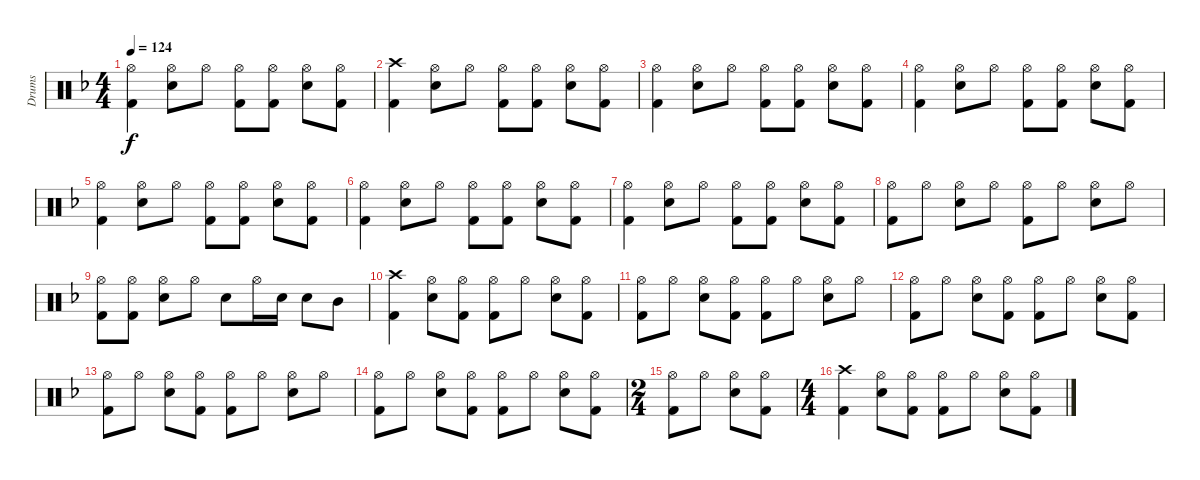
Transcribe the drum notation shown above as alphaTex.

\track ("Drums" "Drums") {instrument percussion}
\staff {score}
\articulation defaults
\ts (4 4)
\tempo 124
\clef neutral
\ks dminor
("Kick (hit) 2" "Hi-Hat (open)").4{dy f} ("Snare (hit) 2" "Hi-Hat (open)").8 "Hi-Hat (open)".8 ("Kick (hit) 2" "Hi-Hat (open)").8 ("Kick (hit) 2" "Hi-Hat (open)").8 ("Snare (hit) 2" "Hi-Hat (open)").8 ("Kick (hit) 2" "Hi-Hat (open)").8 |
("Kick (hit) 2" "Crash high (hit)").4 ("Snare (hit) 2" "Hi-Hat (open)").8 "Hi-Hat (open)".8 ("Kick (hit) 2" "Hi-Hat (open)").8 ("Kick (hit) 2" "Hi-Hat (open)").8 ("Snare (hit) 2" "Hi-Hat (open)").8 ("Kick (hit) 2" "Hi-Hat (open)").8 |
("Kick (hit) 2" "Hi-Hat (open)").4 ("Snare (hit) 2" "Hi-Hat (open)").8 "Hi-Hat (open)".8 ("Kick (hit) 2" "Hi-Hat (open)").8 ("Kick (hit) 2" "Hi-Hat (open)").8 ("Snare (hit) 2" "Hi-Hat (open)").8 ("Kick (hit) 2" "Hi-Hat (open)").8 |
("Kick (hit) 2" "Hi-Hat (open)").4 ("Snare (hit) 2" "Hi-Hat (open)").8 "Hi-Hat (open)".8 ("Kick (hit) 2" "Hi-Hat (open)").8 ("Kick (hit) 2" "Hi-Hat (open)").8 ("Snare (hit) 2" "Hi-Hat (open)").8 ("Kick (hit) 2" "Hi-Hat (open)").8 |
("Kick (hit) 2" "Hi-Hat (open)").4 ("Snare (hit) 2" "Hi-Hat (open)").8 "Hi-Hat (open)".8 ("Kick (hit) 2" "Hi-Hat (open)").8 ("Kick (hit) 2" "Hi-Hat (open)").8 ("Snare (hit) 2" "Hi-Hat (open)").8 ("Kick (hit) 2" "Hi-Hat (open)").8 |
("Kick (hit) 2" "Hi-Hat (open)").4 ("Snare (hit) 2" "Hi-Hat (open)").8 "Hi-Hat (open)".8 ("Kick (hit) 2" "Hi-Hat (open)").8 ("Kick (hit) 2" "Hi-Hat (open)").8 ("Snare (hit) 2" "Hi-Hat (open)").8 ("Kick (hit) 2" "Hi-Hat (open)").8 |
("Kick (hit) 2" "Hi-Hat (open)").4 ("Snare (hit) 2" "Hi-Hat (open)").8 "Hi-Hat (open)".8 ("Kick (hit) 2" "Hi-Hat (open)").8 ("Kick (hit) 2" "Hi-Hat (open)").8 ("Snare (hit) 2" "Hi-Hat (open)").8 ("Kick (hit) 2" "Hi-Hat (open)").8 |
("Kick (hit) 2" "Hi-Hat (open)").8 "Hi-Hat (open)".8 ("Snare (hit) 2" "Hi-Hat (open)").8 "Hi-Hat (open)".8 ("Kick (hit) 2" "Hi-Hat (open)").8 "Hi-Hat (open)".8 ("Snare (hit) 2" "Hi-Hat (open)").8 "Hi-Hat (open)".8 |
("Kick (hit) 2" "Hi-Hat (open)").8 ("Kick (hit) 2" "Hi-Hat (open)").8 ("Snare (hit) 2" "Hi-Hat (open)").8 "Hi-Hat (open)".8 "Snare (hit) 2".8 "Hi-Hat (open)".16 "Snare (hit) 2".16 "Snare (hit) 2".8 "Mid Tom (hit)".8 |
("Kick (hit) 2" "Crash high (hit)").4 ("Snare (hit) 2" "Hi-Hat (open)").8 ("Kick (hit) 2" "Hi-Hat (open)").8 ("Kick (hit) 2" "Hi-Hat (open)").8 "Hi-Hat (open)".8 ("Snare (hit) 2" "Hi-Hat (open)").8 ("Kick (hit) 2" "Hi-Hat (open)").8 |
("Kick (hit) 2" "Hi-Hat (open)").8 "Hi-Hat (open)".8 ("Snare (hit) 2" "Hi-Hat (open)").8 ("Kick (hit) 2" "Hi-Hat (open)").8 ("Kick (hit) 2" "Hi-Hat (open)").8 "Hi-Hat (open)".8 ("Snare (hit) 2" "Hi-Hat (open)").8 "Hi-Hat (open)".8 |
("Kick (hit) 2" "Hi-Hat (open)").8 "Hi-Hat (open)".8 ("Snare (hit) 2" "Hi-Hat (open)").8 ("Kick (hit) 2" "Hi-Hat (open)").8 ("Kick (hit) 2" "Hi-Hat (open)").8 "Hi-Hat (open)".8 ("Snare (hit) 2" "Hi-Hat (open)").8 ("Kick (hit) 2" "Hi-Hat (open)").8 |
("Kick (hit) 2" "Hi-Hat (open)").8 "Hi-Hat (open)".8 ("Snare (hit) 2" "Hi-Hat (open)").8 ("Kick (hit) 2" "Hi-Hat (open)").8 ("Kick (hit) 2" "Hi-Hat (open)").8 "Hi-Hat (open)".8 ("Snare (hit) 2" "Hi-Hat (open)").8 "Hi-Hat (open)".8 |
("Kick (hit) 2" "Hi-Hat (open)").8 "Hi-Hat (open)".8 ("Snare (hit) 2" "Hi-Hat (open)").8 ("Kick (hit) 2" "Hi-Hat (open)").8 ("Kick (hit) 2" "Hi-Hat (open)").8 "Hi-Hat (open)".8 ("Snare (hit) 2" "Hi-Hat (open)").8 ("Kick (hit) 2" "Hi-Hat (open)").8 |
\ts (2 4)
("Kick (hit) 2" "Hi-Hat (open)").8 "Hi-Hat (open)".8 ("Snare (hit) 2" "Hi-Hat (open)").8 ("Kick (hit) 2" "Hi-Hat (open)").8 |
\ts (4 4)
("Kick (hit) 2" "Crash high (hit)").4 ("Snare (hit) 2" "Hi-Hat (open)").8 ("Kick (hit) 2" "Hi-Hat (open)").8 ("Kick (hit) 2" "Hi-Hat (open)").8 "Hi-Hat (open)".8 ("Snare (hit) 2" "Hi-Hat (open)").8 ("Kick (hit) 2" "Hi-Hat (open)").8
